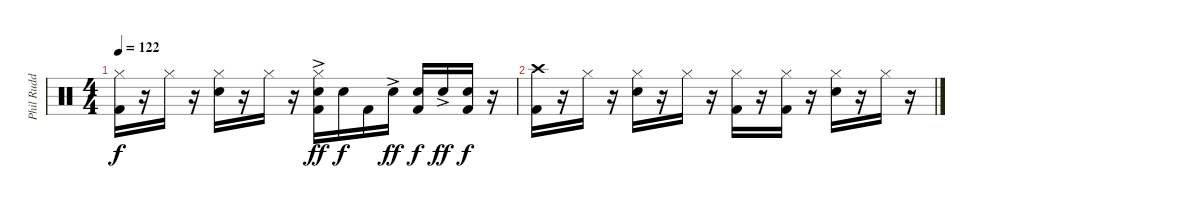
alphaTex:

\track ("Phil Rudd" "Phil Rudd") {instrument percussion}
\staff {score}
\articulation defaults
\ts (4 4)
\tempo 122
\clef neutral
\ks c
("Hi-Hat (closed)" "Kick (hit) 2").16{dy f} r.16 "Hi-Hat (closed)".16 r.16 ("Hi-Hat (closed)" "Snare (hit) 2").16 r.16 "Hi-Hat (closed)".16 r.16 ("Hi-Hat (closed)" "Snare (hit) 2"{ac} "Kick (hit) 2").16{dy ff} "Snare (hit) 2".16{dy f} "Kick (hit) 2".16 "Snare (hit) 2"{ac}.16{dy ff} ("Snare (hit) 2" "Kick (hit) 2").16{dy f} "Snare (hit) 2"{ac}.16{dy ff} ("Snare (hit) 2" "Kick (hit) 2").16{dy f} r.16 |
("Crash high (hit)" "Kick (hit) 2").16 r.16 "Hi-Hat (closed)".16 r.16 ("Hi-Hat (closed)" "Snare (hit) 2").16 r.16 "Hi-Hat (closed)".16 r.16 ("Hi-Hat (closed)" "Kick (hit) 2").16 r.16 ("Hi-Hat (closed)" "Kick (hit) 2").16 r.16 ("Hi-Hat (closed)" "Snare (hit) 2").16 r.16 "Hi-Hat (closed)".16 r.16
